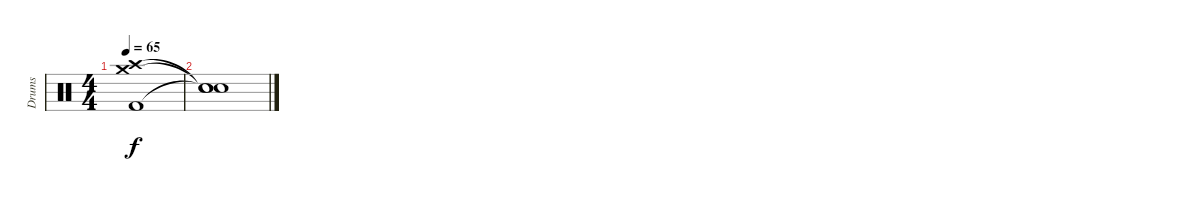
\track ("Drums" "Drums") {instrument percussion}
\staff {score}
\articulation defaults
\ts (4 4)
\tempo 65
\clef neutral
\ks c
("Kick (hit) 2" "Crash medium (hit)" "Crash high (hit)").1{dy f} |
("Snare (hit)"{t} "Snare (hit)"{t} "Snare (hit)"{t}).1
